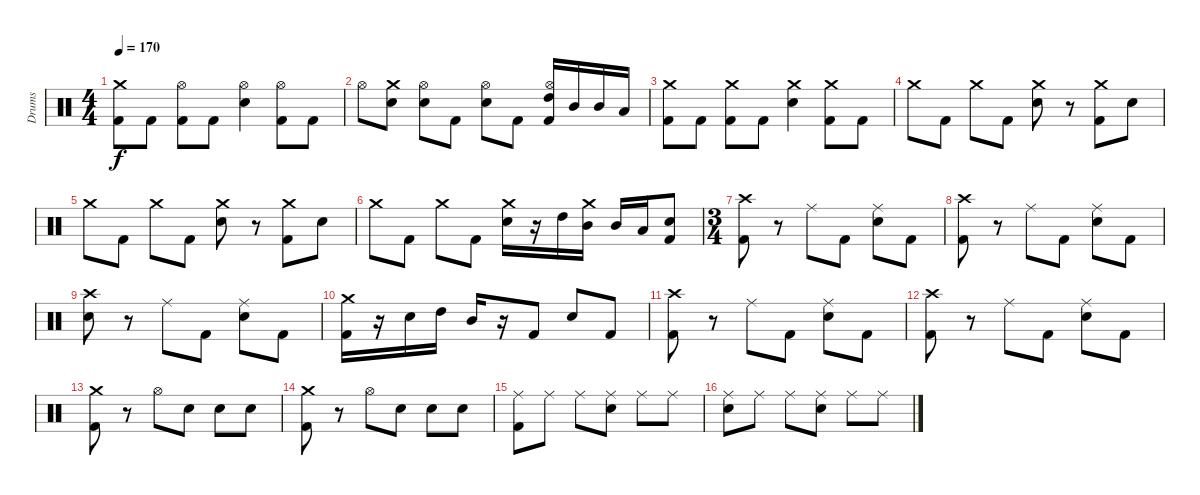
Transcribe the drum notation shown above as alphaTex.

\track ("Drums" "Drums") {instrument percussion}
\staff {score}
\articulation defaults
\ts (4 4)
\tempo 170
\clef neutral
\ks c
("Crash medium (hit)" "Kick (hit) 2").8{dy f} "Kick (hit) 2".8 ("Hi-Hat (open)" "Kick (hit) 2").8 "Kick (hit) 2".8 ("Hi-Hat (open)" "Snare (hit) 2").4 ("Hi-Hat (open)" "Kick (hit) 2").8 "Kick (hit) 2".8 |
"Hi-Hat (open)".8 ("Crash medium (hit)" "Snare (hit) 2").8 ("Hi-Hat (open)" "Snare (hit) 2").8 "Kick (hit) 2".8 ("Hi-Hat (open)" "Snare (hit) 2").8 "Kick (hit) 2".8 ("Hi-Hat (open)" "High Tom (hit)" "Kick (hit) 2").16 "Mid Tom (hit)".16 "Mid Tom (hit)".16 "Low Tom (hit)".16 |
("Crash medium (hit)" "Kick (hit) 2").8 "Kick (hit) 2".8 ("Crash medium (hit)" "Kick (hit) 2").8 "Kick (hit) 2".8 ("Crash medium (hit)" "Snare (hit) 2").4 ("Crash medium (hit)" "Kick (hit) 2").8 "Kick (hit) 2".8 |
"Crash medium (hit)".8 "Kick (hit) 2".8 "Crash medium (hit)".8 "Kick (hit) 2".8 ("Crash medium (hit)" "Snare (hit) 2").8 r.8 ("Crash medium (hit)" "Kick (hit) 2").8 "Snare (hit) 2".8 |
"Crash medium (hit)".8 "Kick (hit) 2".8 "Crash medium (hit)".8 "Kick (hit) 2".8 ("Crash medium (hit)" "Snare (hit) 2").8 r.8 ("Crash medium (hit)" "Kick (hit) 2").8 "Snare (hit) 2".8 |
"Crash medium (hit)".8 "Kick (hit) 2".8 "Crash medium (hit)".8 "Kick (hit) 2".8 ("Crash medium (hit)" "Snare (hit) 2").16 r.16 "High Tom (hit)".16 ("Crash medium (hit)" "Mid Tom (hit)").16 "Mid Tom (hit)".16 "Low Tom (hit)".16 ("Snare (hit) 2" "Kick (hit) 2").8 |
\ts (3 4)
("Crash high (hit)" "Kick (hit) 2").8 r.8 "Ride (middle)".8 "Kick (hit) 2".8 ("Ride (middle)" "Snare (hit) 2").8 "Kick (hit) 2".8 |
("Crash high (hit)" "Kick (hit) 2").8 r.8 "Ride (middle)".8 "Kick (hit) 2".8 ("Ride (middle)" "Snare (hit) 2").8 "Kick (hit) 2".8 |
("Crash high (hit)" "Snare (hit) 2").8 r.8 "Ride (middle)".8 "Kick (hit) 2".8 ("Ride (middle)" "Snare (hit) 2").8 "Kick (hit) 2".8 |
("Crash medium (hit)" "Kick (hit) 2").16 r.16 "Snare (hit) 2".16 "High Tom (hit)".16 "Mid Tom (hit)".16 r.16 "Kick (hit) 2".8 "Snare (hit) 2".8 "Kick (hit) 2".8 |
("Crash high (hit)" "Kick (hit) 2").8 r.8 "Ride (middle)".8 "Kick (hit) 2".8 ("Ride (middle)" "Snare (hit) 2").8 "Kick (hit) 2".8 |
("Crash high (hit)" "Kick (hit) 2").8 r.8 "Ride (middle)".8 "Kick (hit) 2".8 ("Ride (middle)" "Snare (hit) 2").8 "Kick (hit) 2".8 |
("Crash medium (hit)" "Kick (hit) 2").8 r.8 "Hi-Hat (open)".8 "Snare (hit) 2".8 "Snare (hit) 2".8 "Snare (hit) 2".8 |
("Crash medium (hit)" "Kick (hit) 2").8 r.8 "Hi-Hat (open)".8 "Snare (hit) 2".8 "Snare (hit) 2".8 "Snare (hit) 2".8 |
("Ride (middle)" "Kick (hit) 2").8 "Ride (middle)".8 "Ride (middle)".8 ("Ride (middle)" "Snare (hit) 2").8 "Ride (middle)".8 "Ride (middle)".8 |
("Ride (middle)" "Snare (hit) 2").8 "Ride (middle)".8 "Ride (middle)".8 ("Ride (middle)" "Snare (hit) 2").8 "Ride (middle)".8 "Ride (middle)".8
